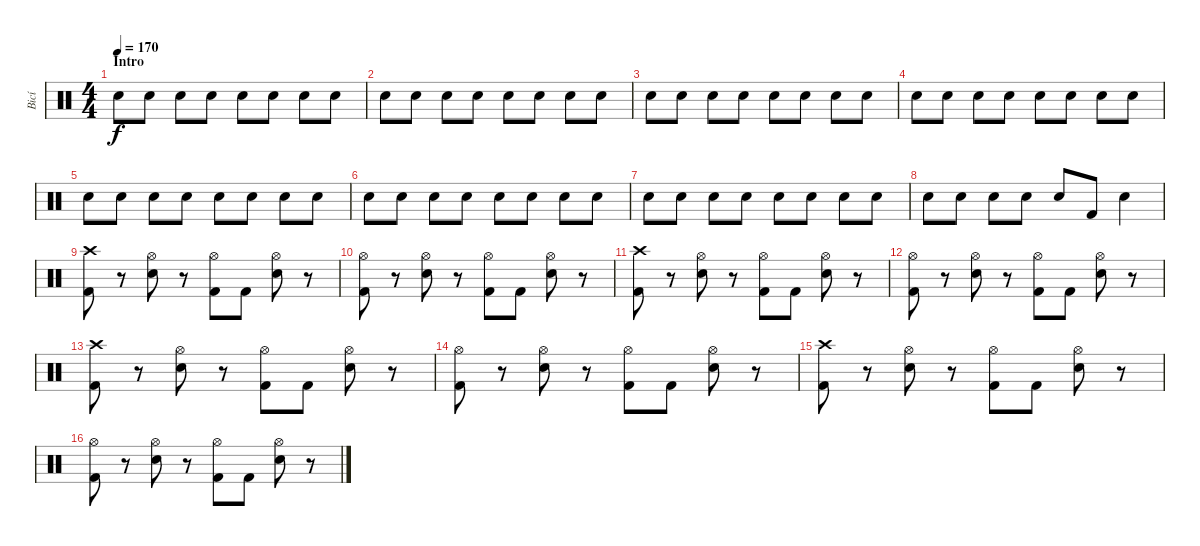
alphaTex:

\track ("Bicí" "Bicí") {instrument percussion}
\staff {score}
\articulation defaults
\ts (4 4)
\section ("" "Intro")
\tempo 170
\clef neutral
\ks c "Snare (hit) 2".8{dy f} "Snare (hit) 2".8 "Snare (hit) 2".8 "Snare (hit) 2".8 "Snare (hit) 2".8 "Snare (hit) 2".8 "Snare (hit) 2".8 "Snare (hit) 2".8
|
"Snare (hit) 2".8 "Snare (hit) 2".8 "Snare (hit) 2".8 "Snare (hit) 2".8 "Snare (hit) 2".8 "Snare (hit) 2".8 "Snare (hit) 2".8 "Snare (hit) 2".8 |
"Snare (hit) 2".8 "Snare (hit) 2".8 "Snare (hit) 2".8 "Snare (hit) 2".8 "Snare (hit) 2".8 "Snare (hit) 2".8 "Snare (hit) 2".8 "Snare (hit) 2".8 |
"Snare (hit) 2".8 "Snare (hit) 2".8 "Snare (hit) 2".8 "Snare (hit) 2".8 "Snare (hit) 2".8 "Snare (hit) 2".8 "Snare (hit) 2".8 "Snare (hit) 2".8 |
"Snare (hit) 2".8 "Snare (hit) 2".8 "Snare (hit) 2".8 "Snare (hit) 2".8 "Snare (hit) 2".8 "Snare (hit) 2".8 "Snare (hit) 2".8 "Snare (hit) 2".8 |
"Snare (hit) 2".8 "Snare (hit) 2".8 "Snare (hit) 2".8 "Snare (hit) 2".8 "Snare (hit) 2".8 "Snare (hit) 2".8 "Snare (hit) 2".8 "Snare (hit) 2".8 |
"Snare (hit) 2".8 "Snare (hit) 2".8 "Snare (hit) 2".8 "Snare (hit) 2".8 "Snare (hit) 2".8 "Snare (hit) 2".8 "Snare (hit) 2".8 "Snare (hit) 2".8 |
"Snare (hit) 2".8 "Snare (hit) 2".8 "Snare (hit) 2".8 "Snare (hit) 2".8 "Snare (hit) 2".8 "Kick (hit) 2".8 "Snare (hit) 2".4 |
("Crash high (hit)" "Kick (hit) 2").8 r.8 ("Hi-Hat (open)" "Snare (hit) 2").8 r.8 ("Hi-Hat (open)" "Kick (hit) 2").8 "Kick (hit) 2".8 ("Hi-Hat (open)" "Snare (hit) 2").8 r.8 |
("Hi-Hat (open)" "Kick (hit) 2").8 r.8 ("Hi-Hat (open)" "Snare (hit) 2").8 r.8 ("Hi-Hat (open)" "Kick (hit) 2").8 "Kick (hit) 2".8 ("Hi-Hat (open)" "Snare (hit) 2").8 r.8 |
("Crash high (hit)" "Kick (hit) 2").8 r.8 ("Hi-Hat (open)" "Snare (hit) 2").8 r.8 ("Hi-Hat (open)" "Kick (hit) 2").8 "Kick (hit) 2".8 ("Hi-Hat (open)" "Snare (hit) 2").8 r.8 |
("Hi-Hat (open)" "Kick (hit) 2").8 r.8 ("Hi-Hat (open)" "Snare (hit) 2").8 r.8 ("Hi-Hat (open)" "Kick (hit) 2").8 "Kick (hit) 2".8 ("Hi-Hat (open)" "Snare (hit) 2").8 r.8 |
("Crash high (hit)" "Kick (hit) 2").8 r.8 ("Hi-Hat (open)" "Snare (hit) 2").8 r.8 ("Hi-Hat (open)" "Kick (hit) 2").8 "Kick (hit) 2".8 ("Hi-Hat (open)" "Snare (hit) 2").8 r.8 |
("Hi-Hat (open)" "Kick (hit) 2").8 r.8 ("Hi-Hat (open)" "Snare (hit) 2").8 r.8 ("Hi-Hat (open)" "Kick (hit) 2").8 "Kick (hit) 2".8 ("Hi-Hat (open)" "Snare (hit) 2").8 r.8 |
("Crash high (hit)" "Kick (hit) 2").8 r.8 ("Hi-Hat (open)" "Snare (hit) 2").8 r.8 ("Hi-Hat (open)" "Kick (hit) 2").8 "Kick (hit) 2".8 ("Hi-Hat (open)" "Snare (hit) 2").8 r.8 |
("Hi-Hat (open)" "Kick (hit) 2").8 r.8 ("Hi-Hat (open)" "Snare (hit) 2").8 r.8 ("Hi-Hat (open)" "Kick (hit) 2").8 "Kick (hit) 2".8 ("Hi-Hat (open)" "Snare (hit) 2").8 r.8
